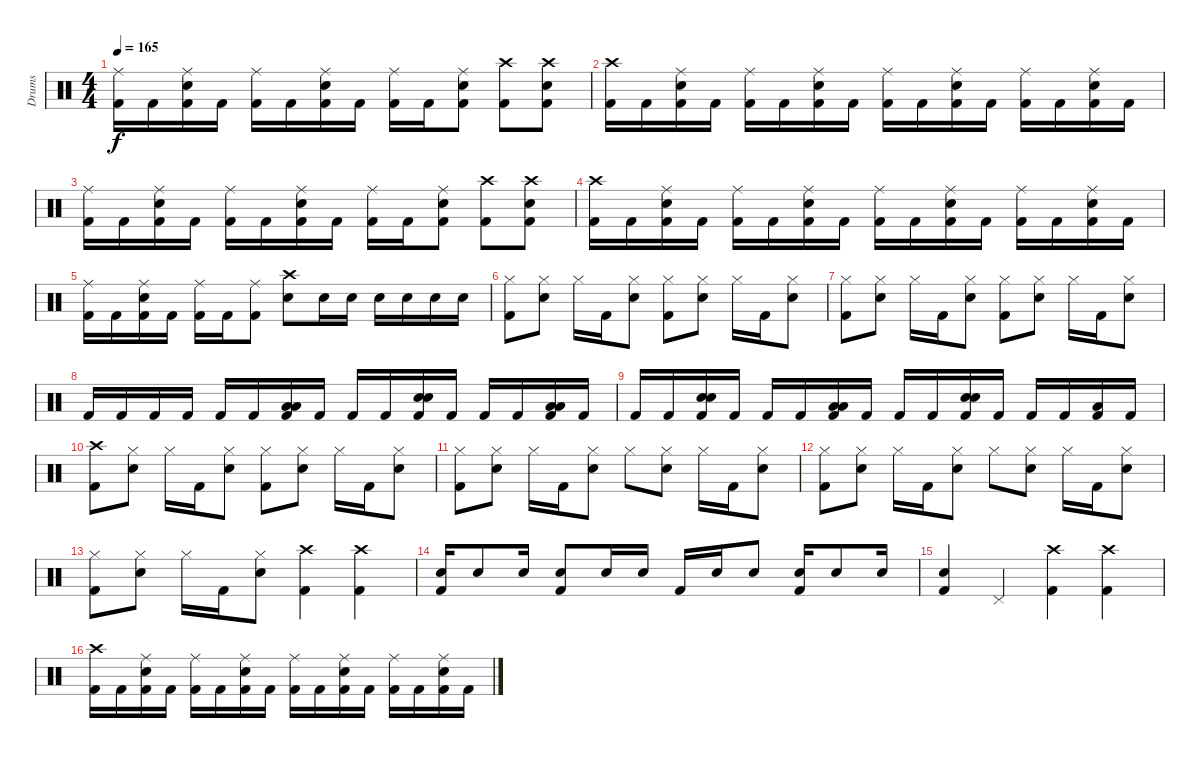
\track ("Drums" "Drums") {instrument percussion}
\staff {score}
\articulation defaults
\ts (4 4)
\tempo 165
\clef neutral
\ks c
("Ride (middle)" "Kick (hit) 2").16{dy f} "Kick (hit) 2".16 ("Ride (middle)" "Snare (hit) 2" "Kick (hit) 2").16 "Kick (hit) 2".16 ("Ride (middle)" "Kick (hit) 2").16 "Kick (hit) 2".16 ("Ride (middle)" "Snare (hit) 2" "Kick (hit) 2").16 "Kick (hit) 2".16 ("Ride (middle)" "Kick (hit) 2").16 "Kick (hit) 2".16 ("Ride (middle)" "Snare (hit) 2" "Kick (hit) 2").8 ("Crash high (hit)" "Kick (hit) 2").8 ("Crash high (hit)" "Snare (hit) 2" "Kick (hit) 2").8 |
("Crash high (hit)" "Kick (hit) 2").16 "Kick (hit) 2".16 ("Ride (middle)" "Snare (hit) 2" "Kick (hit) 2").16 "Kick (hit) 2".16 ("Ride (middle)" "Kick (hit) 2").16 "Kick (hit) 2".16 ("Ride (middle)" "Snare (hit) 2" "Kick (hit) 2").16 "Kick (hit) 2".16 ("Ride (middle)" "Kick (hit) 2").16 "Kick (hit) 2".16 ("Ride (middle)" "Snare (hit) 2" "Kick (hit) 2").16 "Kick (hit) 2".16 ("Ride (middle)" "Kick (hit) 2").16 "Kick (hit) 2".16 ("Ride (middle)" "Snare (hit) 2" "Kick (hit) 2").16 "Kick (hit) 2".16 |
("Ride (middle)" "Kick (hit) 2").16 "Kick (hit) 2".16 ("Ride (middle)" "Snare (hit) 2" "Kick (hit) 2").16 "Kick (hit) 2".16 ("Ride (middle)" "Kick (hit) 2").16 "Kick (hit) 2".16 ("Ride (middle)" "Snare (hit) 2" "Kick (hit) 2").16 "Kick (hit) 2".16 ("Ride (middle)" "Kick (hit) 2").16 "Kick (hit) 2".16 ("Ride (middle)" "Snare (hit) 2" "Kick (hit) 2").8 ("Crash high (hit)" "Kick (hit) 2").8 ("Crash high (hit)" "Snare (hit) 2" "Kick (hit) 2").8 |
("Crash high (hit)" "Kick (hit) 2").16 "Kick (hit) 2".16 ("Ride (middle)" "Snare (hit) 2" "Kick (hit) 2").16 "Kick (hit) 2".16 ("Ride (middle)" "Kick (hit) 2").16 "Kick (hit) 2".16 ("Ride (middle)" "Snare (hit) 2" "Kick (hit) 2").16 "Kick (hit) 2".16 ("Ride (middle)" "Kick (hit) 2").16 "Kick (hit) 2".16 ("Ride (middle)" "Snare (hit) 2" "Kick (hit) 2").16 "Kick (hit) 2".16 ("Ride (middle)" "Kick (hit) 2").16 "Kick (hit) 2".16 ("Ride (middle)" "Snare (hit) 2" "Kick (hit) 2").16 "Kick (hit) 2".16 |
("Ride (middle)" "Kick (hit) 2").16 "Kick (hit) 2".16 ("Ride (middle)" "Snare (hit) 2" "Kick (hit) 2").16 "Kick (hit) 2".16 ("Ride (middle)" "Kick (hit) 2").16 "Kick (hit) 2".16 ("Ride (middle)" "Kick (hit) 2").8 ("Crash high (hit)" "Snare (hit) 2").8 "Snare (hit) 2".16 "Snare (hit) 2".16 "Snare (hit) 2".16 "Snare (hit) 2".16 "Snare (hit) 2".16 "Snare (hit) 2".16 |
("Hi-Hat (closed)" "Kick (hit) 2").8 ("Hi-Hat (closed)" "Snare (hit) 2").8 "Hi-Hat (closed)".16 "Kick (hit) 2".16 ("Hi-Hat (closed)" "Snare (hit) 2").8 ("Hi-Hat (closed)" "Kick (hit) 2").8 ("Hi-Hat (closed)" "Snare (hit) 2").8 "Hi-Hat (closed)".16 "Kick (hit) 2".16 ("Hi-Hat (closed)" "Snare (hit) 2").8 |
("Hi-Hat (closed)" "Kick (hit) 2").8 ("Hi-Hat (closed)" "Snare (hit) 2").8 "Hi-Hat (closed)".16 "Kick (hit) 2".16 ("Hi-Hat (closed)" "Snare (hit) 2").8 ("Hi-Hat (closed)" "Kick (hit) 2").8 ("Hi-Hat (closed)" "Snare (hit) 2").8 "Hi-Hat (closed)".16 "Kick (hit) 2".16 ("Hi-Hat (closed)" "Snare (hit) 2").8 |
"Kick (hit) 2".16 "Kick (hit) 2".16 "Kick (hit) 2".16 "Kick (hit) 2".16 "Kick (hit) 2".16 "Kick (hit) 2".16 ("Low Floor Tom (hit)" "Low Floor Tom (hit)" "Kick (hit) 2").16 "Kick (hit) 2".16 "Kick (hit) 2".16 "Kick (hit) 2".16 ("Snare (hit) 2" "Snare (hit) 2" "Kick (hit) 2").16 "Kick (hit) 2".16 "Kick (hit) 2".16 "Kick (hit) 2".16 ("Low Floor Tom (hit)" "Low Floor Tom (hit)" "Kick (hit) 2").16 "Kick (hit) 2".16 |
"Kick (hit) 2".16 "Kick (hit) 2".16 ("Snare (hit) 2" "Snare (hit) 2" "Kick (hit) 2").16 "Kick (hit) 2".16 "Kick (hit) 2".16 "Kick (hit) 2".16 ("Low Floor Tom (hit)" "Low Floor Tom (hit)" "Kick (hit) 2").16 "Kick (hit) 2".16 "Kick (hit) 2".16 "Kick (hit) 2".16 ("Snare (hit) 2" "Snare (hit) 2" "Kick (hit) 2").16 "Kick (hit) 2".16 "Kick (hit) 2".16 "Kick (hit) 2".16 ("Low Tom (hit)" "Kick (hit) 2").16 "Kick (hit) 2".16 |
("Crash high (hit)" "Kick (hit) 2").8 ("Hi-Hat (closed)" "Snare (hit) 2").8 "Hi-Hat (closed)".16 "Kick (hit) 2".16 ("Hi-Hat (closed)" "Snare (hit) 2").8 ("Hi-Hat (closed)" "Kick (hit) 2").8 ("Hi-Hat (closed)" "Snare (hit) 2").8 "Hi-Hat (closed)".16 "Kick (hit) 2".16 ("Hi-Hat (closed)" "Snare (hit) 2").8 |
("Hi-Hat (closed)" "Kick (hit) 2").8 ("Hi-Hat (closed)" "Snare (hit) 2").8 "Hi-Hat (closed)".16 "Kick (hit) 2".16 ("Hi-Hat (closed)" "Snare (hit) 2").8 "Hi-Hat (closed)".8 ("Hi-Hat (closed)" "Snare (hit) 2").8 "Hi-Hat (closed)".16 "Kick (hit) 2".16 ("Hi-Hat (closed)" "Snare (hit) 2").8 |
("Hi-Hat (closed)" "Kick (hit) 2").8 ("Hi-Hat (closed)" "Snare (hit) 2").8 "Hi-Hat (closed)".16 "Kick (hit) 2".16 ("Hi-Hat (closed)" "Snare (hit) 2").8 "Hi-Hat (closed)".8 ("Hi-Hat (closed)" "Snare (hit) 2").8 "Hi-Hat (closed)".16 "Kick (hit) 2".16 ("Hi-Hat (closed)" "Snare (hit) 2").8 |
("Hi-Hat (closed)" "Kick (hit) 2").8 ("Hi-Hat (closed)" "Snare (hit) 2").8 "Hi-Hat (closed)".16 "Kick (hit) 2".16 ("Hi-Hat (closed)" "Snare (hit) 2").8 ("Crash high (hit)" "Kick (hit) 2").4 ("Crash high (hit)" "Kick (hit) 2").4 |
("Snare (hit) 2" "Kick (hit) 2").16 "Snare (hit) 2".8 "Snare (hit) 2".16 ("Snare (hit) 2" "Kick (hit) 2").8 "Snare (hit) 2".16 "Snare (hit) 2".16 "Kick (hit) 2".16 "Snare (hit) 2".16 "Snare (hit) 2".8 ("Snare (hit) 2" "Kick (hit) 2").16 "Snare (hit) 2".8 "Snare (hit) 2".16 |
("Snare (hit) 2" "Kick (hit) 2").4 "Pedal Hi-Hat (hit)".4 ("Crash high (hit)" "Kick (hit) 2").4 ("Crash high (hit)" "Kick (hit) 2").4 |
("Crash high (hit)" "Kick (hit) 2").16 "Kick (hit) 2".16 ("Ride (middle)" "Snare (hit) 2" "Kick (hit) 2").16 "Kick (hit) 2".16 ("Ride (middle)" "Kick (hit) 2").16 "Kick (hit) 2".16 ("Ride (middle)" "Snare (hit) 2" "Kick (hit) 2").16 "Kick (hit) 2".16 ("Ride (middle)" "Kick (hit) 2").16 "Kick (hit) 2".16 ("Ride (middle)" "Snare (hit) 2" "Kick (hit) 2").16 "Kick (hit) 2".16 ("Ride (middle)" "Kick (hit) 2").16 "Kick (hit) 2".16 ("Ride (middle)" "Snare (hit) 2" "Kick (hit) 2").16 "Kick (hit) 2".16
